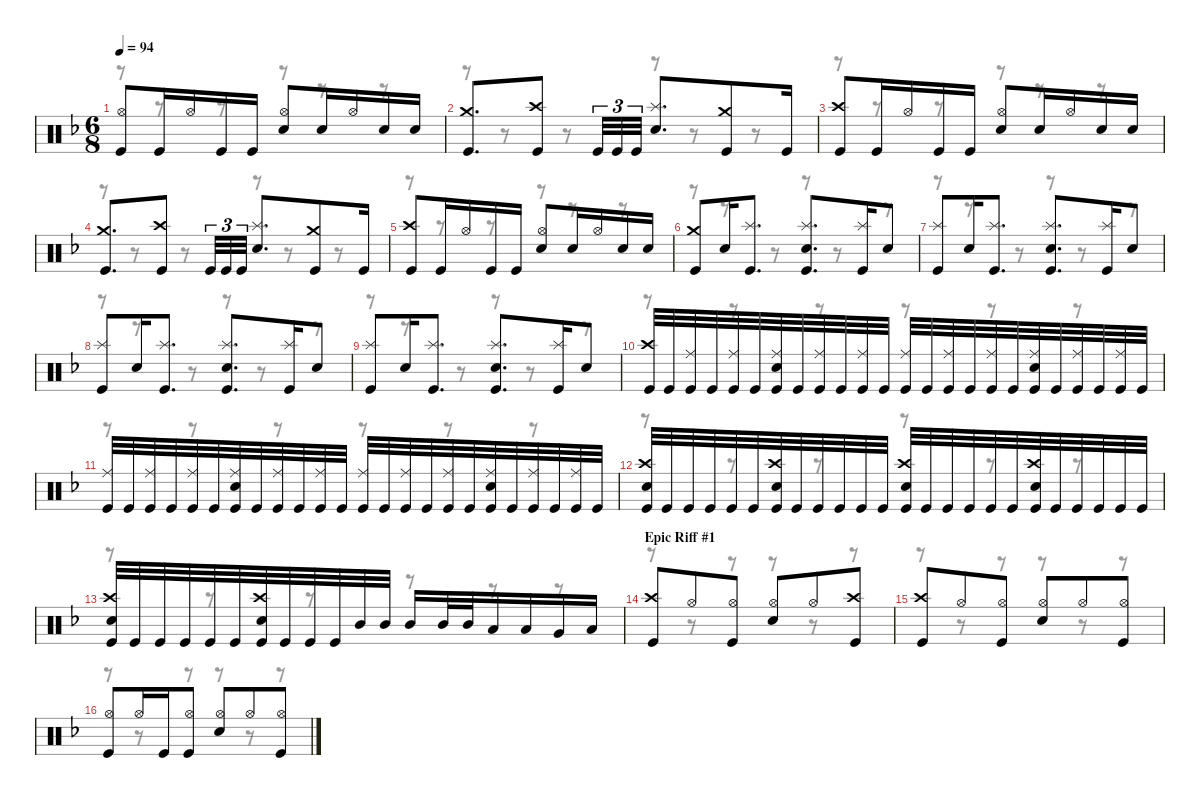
\defaultSystemsLayout 4
\hideDynamics
\bracketExtendMode nobrackets
\singleTrackTrackNamePolicy hidden
\multiTrackTrackNamePolicy hidden
\otherSystemsTrackNameOrientation horizontal
\track ("M. Lopez" "drm.") {instrument percussion}
\staff {score}
\articulation defaults
\voice
\ts (6 8)
\tempo 94
\clef neutral
\ks dminor
("Hi-Hat (open)"{acc forcenatural} "Kick (hit)"{acc forcenatural}).8{dy f beam Up} "Kick (hit)"{acc forcenatural}.16{beam Up} "Hi-Hat (open)"{acc forcenatural}.16{beam Up} "Kick (hit)"{acc forcenatural}.16{beam Up} "Kick (hit)"{acc forcenatural}.16{beam Up} ("Hi-Hat (open)"{acc forcenatural} "Snare (hit) 2"{acc forcenatural}).8{beam Up} "Snare (hit) 2"{acc forcenatural}.16{beam Up} "Hi-Hat (open)"{acc forcenatural}.16{beam Up} "Snare (hit) 2"{acc forcenatural}.16{beam Up} "Snare (hit) 2"{acc forcenatural}.16{beam Up} |
("Crash medium (hit)"{acc forcenatural} "Kick (hit)"{acc forcenatural}).8{d beam Up} ("Crash high (hit)"{acc forcenatural} "Kick (hit)"{acc forcenatural}).8{beam Up} "Kick (hit)"{acc forcenatural}.32{tu (3 2) beam Up} "Kick (hit)"{acc forcenatural}.32{tu (3 2) beam Up} "Kick (hit)"{acc forcenatural}.32{tu (3 2) beam Up} ("Splash (hit)"{acc forcenatural} "Snare (hit) 2"{acc forcenatural}).8{d beam Up} ("Crash medium (hit)"{acc forcenatural} "Kick (hit)"{acc forcenatural}).8{beam Up} "Kick (hit)"{acc forcenatural}.16{beam Up} |
("Crash high (hit)"{acc forcenatural} "Kick (hit)"{acc forcenatural}).8{beam Up} "Kick (hit)"{acc forcenatural}.16{beam Up} "Hi-Hat (open)"{acc forcenatural}.16{beam Up} "Kick (hit)"{acc forcenatural}.16{beam Up} "Kick (hit)"{acc forcenatural}.16{beam Up} ("Hi-Hat (open)"{acc forcenatural} "Snare (hit) 2"{acc forcenatural}).8{beam Up} "Snare (hit) 2"{acc forcenatural}.16{beam Up} "Hi-Hat (open)"{acc forcenatural}.16{beam Up} "Snare (hit) 2"{acc forcenatural}.16{beam Up} "Snare (hit) 2"{acc forcenatural}.16{beam Up} |
("Crash medium (hit)"{acc forcenatural} "Kick (hit)"{acc forcenatural}).8{d beam Up} ("Crash high (hit)"{acc forcenatural} "Kick (hit)"{acc forcenatural}).8{beam Up} "Kick (hit)"{acc forcenatural}.32{tu (3 2) beam Up} "Kick (hit)"{acc forcenatural}.32{tu (3 2) beam Up} "Kick (hit)"{acc forcenatural}.32{tu (3 2) beam Up} ("Splash (hit)"{acc forcenatural} "Snare (hit) 2"{acc forcenatural}).8{d beam Up} ("Crash medium (hit)"{acc forcenatural} "Kick (hit)"{acc forcenatural}).8{beam Up} "Kick (hit)"{acc forcenatural}.16{beam Up} |
("Crash high (hit)"{acc forcenatural} "Kick (hit)"{acc forcenatural}).8{beam Up} "Kick (hit)"{acc forcenatural}.16{beam Up} "Hi-Hat (open)"{acc forcenatural}.16{beam Up} "Kick (hit)"{acc forcenatural}.16{beam Up} "Kick (hit)"{acc forcenatural}.16{beam Up} ("Hi-Hat (open)"{acc forcenatural} "Snare (hit) 2"{acc forcenatural}).8{beam Up} "Snare (hit) 2"{acc forcenatural}.16{beam Up} "Hi-Hat (open)"{acc forcenatural}.16{beam Up} "Snare (hit) 2"{acc forcenatural}.16{beam Up} "Snare (hit) 2"{acc forcenatural}.16{beam Up} |
("Crash medium (hit)"{acc forcenatural} "Kick (hit)"{acc forcenatural}).8{beam Up} "Snare (hit) 2"{acc forcenatural}.16{beam Up} ("Splash (hit)"{acc forcenatural} "Kick (hit)"{acc forcenatural}).8{d beam Up} ("Splash (hit)"{acc forcenatural} "Snare (hit) 2"{acc forcenatural} "Kick (hit)"{acc forcenatural}).8{d beam Up} ("Splash (hit)"{acc forcenatural} "Kick (hit)"{acc forcenatural}).16{beam Up} "Snare (hit) 2"{acc forcenatural}.8{beam Up} |
("Splash (hit)"{acc forcenatural} "Kick (hit)"{acc forcenatural}).8{beam Up} "Snare (hit) 2"{acc forcenatural}.16{beam Up} ("Splash (hit)"{acc forcenatural} "Kick (hit)"{acc forcenatural}).8{d beam Up} ("Splash (hit)"{acc forcenatural} "Snare (hit) 2"{acc forcenatural} "Kick (hit)"{acc forcenatural}).8{d beam Up} ("Splash (hit)"{acc forcenatural} "Kick (hit)"{acc forcenatural}).16{beam Up} "Snare (hit) 2"{acc forcenatural}.8{beam Up} |
("Splash (hit)"{acc forcenatural} "Kick (hit)"{acc forcenatural}).8{beam Up} "Snare (hit) 2"{acc forcenatural}.16{beam Up} ("Splash (hit)"{acc forcenatural} "Kick (hit)"{acc forcenatural}).8{d beam Up} ("Splash (hit)"{acc forcenatural} "Snare (hit) 2"{acc forcenatural} "Kick (hit)"{acc forcenatural}).8{d beam Up} ("Splash (hit)"{acc forcenatural} "Kick (hit)"{acc forcenatural}).16{beam Up} "Snare (hit) 2"{acc forcenatural}.8{beam Up} |
("Splash (hit)"{acc forcenatural} "Kick (hit)"{acc forcenatural}).8{beam Up} "Snare (hit) 2"{acc forcenatural}.16{beam Up} ("Splash (hit)"{acc forcenatural} "Kick (hit)"{acc forcenatural}).8{d beam Up} ("Splash (hit)"{acc forcenatural} "Snare (hit) 2"{acc forcenatural} "Kick (hit)"{acc forcenatural}).8{d beam Up} ("Splash (hit)"{acc forcenatural} "Kick (hit)"{acc forcenatural}).16{beam Up} "Snare (hit) 2"{acc forcenatural}.8{beam Up} |
("Crash high (hit)"{acc forcenatural} "Kick (hit)"{acc forcenatural}).32{beam Up} "Kick (hit)"{acc forcenatural}.32{beam Up} ("Ride (middle)"{acc forcenatural} "Kick (hit)"{acc forcenatural}).32{beam Up} "Kick (hit)"{acc forcenatural}.32{beam Up} ("Ride (middle)"{acc forcenatural} "Kick (hit)"{acc forcenatural}).32{beam Up} "Kick (hit)"{acc forcenatural}.32{beam Up} ("Ride (middle)"{acc forcenatural} "Snare (hit) 2"{acc forcenatural} "Kick (hit)"{acc forcenatural}).32{beam Up} "Kick (hit)"{acc forcenatural}.32{beam Up} ("Ride (middle)"{acc forcenatural} "Kick (hit)"{acc forcenatural}).32{beam Up} "Kick (hit)"{acc forcenatural}.32{beam Up} ("Ride (middle)"{acc forcenatural} "Kick (hit)"{acc forcenatural}).32{beam Up} "Kick (hit)"{acc forcenatural}.32{beam Up} ("Ride (middle)"{acc forcenatural} "Kick (hit)"{acc forcenatural}).32{beam Up} "Kick (hit)"{acc forcenatural}.32{beam Up} ("Ride (middle)"{acc forcenatural} "Kick (hit)"{acc forcenatural}).32{beam Up} "Kick (hit)"{acc forcenatural}.32{beam Up} ("Ride (middle)"{acc forcenatural} "Kick (hit)"{acc forcenatural}).32{beam Up} "Kick (hit)"{acc forcenatural}.32{beam Up} ("Ride (middle)"{acc forcenatural} "Snare (hit) 2"{acc forcenatural} "Kick (hit)"{acc forcenatural}).32{beam Up} "Kick (hit)"{acc forcenatural}.32{beam Up} ("Ride (middle)"{acc forcenatural} "Kick (hit)"{acc forcenatural}).32{beam Up} "Kick (hit)"{acc forcenatural}.32{beam Up} ("Ride (middle)"{acc forcenatural} "Kick (hit)"{acc forcenatural}).32{beam Up} "Kick (hit)"{acc forcenatural}.32{beam Up} |
("Ride (middle)"{acc forcenatural} "Kick (hit)"{acc forcenatural}).32{beam Up} "Kick (hit)"{acc forcenatural}.32{beam Up} ("Ride (middle)"{acc forcenatural} "Kick (hit)"{acc forcenatural}).32{beam Up} "Kick (hit)"{acc forcenatural}.32{beam Up} ("Ride (middle)"{acc forcenatural} "Kick (hit)"{acc forcenatural}).32{beam Up} "Kick (hit)"{acc forcenatural}.32{beam Up} ("Ride (middle)"{acc forcenatural} "Snare (hit) 2"{acc forcenatural} "Kick (hit)"{acc forcenatural}).32{beam Up} "Kick (hit)"{acc forcenatural}.32{beam Up} ("Ride (middle)"{acc forcenatural} "Kick (hit)"{acc forcenatural}).32{beam Up} "Kick (hit)"{acc forcenatural}.32{beam Up} ("Ride (middle)"{acc forcenatural} "Kick (hit)"{acc forcenatural}).32{beam Up} "Kick (hit)"{acc forcenatural}.32{beam Up} ("Ride (middle)"{acc forcenatural} "Kick (hit)"{acc forcenatural}).32{beam Up} "Kick (hit)"{acc forcenatural}.32{beam Up} ("Ride (middle)"{acc forcenatural} "Kick (hit)"{acc forcenatural}).32{beam Up} "Kick (hit)"{acc forcenatural}.32{beam Up} ("Ride (middle)"{acc forcenatural} "Kick (hit)"{acc forcenatural}).32{beam Up} "Kick (hit)"{acc forcenatural}.32{beam Up} ("Ride (middle)"{acc forcenatural} "Snare (hit) 2"{acc forcenatural} "Kick (hit)"{acc forcenatural}).32{beam Up} "Kick (hit)"{acc forcenatural}.32{beam Up} ("Ride (middle)"{acc forcenatural} "Kick (hit)"{acc forcenatural}).32{beam Up} "Kick (hit)"{acc forcenatural}.32{beam Up} ("Ride (middle)"{acc forcenatural} "Kick (hit)"{acc forcenatural}).32{beam Up} "Kick (hit)"{acc forcenatural}.32{beam Up} |
("Crash high (hit)"{acc forcenatural} "Snare (hit) 2"{acc forcenatural} "Kick (hit)"{acc forcenatural}).32{beam Up} "Kick (hit)"{acc forcenatural}.32{beam Up} "Kick (hit)"{acc forcenatural}.32{beam Up} "Kick (hit)"{acc forcenatural}.32{beam Up} "Kick (hit)"{acc forcenatural}.32{beam Up} "Kick (hit)"{acc forcenatural}.32{beam Up} ("Crash high (hit)"{acc forcenatural} "Snare (hit) 2"{acc forcenatural} "Kick (hit)"{acc forcenatural}).32{beam Up} "Kick (hit)"{acc forcenatural}.32{beam Up} "Kick (hit)"{acc forcenatural}.32{beam Up} "Kick (hit)"{acc forcenatural}.32{beam Up} "Kick (hit)"{acc forcenatural}.32{beam Up} "Kick (hit)"{acc forcenatural}.32{beam Up} ("Crash high (hit)"{acc forcenatural} "Snare (hit) 2"{acc forcenatural} "Kick (hit)"{acc forcenatural}).32{beam Up} "Kick (hit)"{acc forcenatural}.32{beam Up} "Kick (hit)"{acc forcenatural}.32{beam Up} "Kick (hit)"{acc forcenatural}.32{beam Up} "Kick (hit)"{acc forcenatural}.32{beam Up} "Kick (hit)"{acc forcenatural}.32{beam Up} ("Crash high (hit)"{acc forcenatural} "Snare (hit) 2"{acc forcenatural} "Kick (hit)"{acc forcenatural}).32{beam Up} "Kick (hit)"{acc forcenatural}.32{beam Up} "Kick (hit)"{acc forcenatural}.32{beam Up} "Kick (hit)"{acc forcenatural}.32{beam Up} "Kick (hit)"{acc forcenatural}.32{beam Up} "Kick (hit)"{acc forcenatural}.32{beam Up} |
("Crash high (hit)"{acc forcenatural} "Snare (hit) 2"{acc forcenatural} "Kick (hit)"{acc forcenatural}).32{beam Up} "Kick (hit)"{acc forcenatural}.32{beam Up} "Kick (hit)"{acc forcenatural}.32{beam Up} "Kick (hit)"{acc forcenatural}.32{beam Up} "Kick (hit)"{acc forcenatural}.32{beam Up} "Kick (hit)"{acc forcenatural}.32{beam Up} ("Crash high (hit)"{acc forcenatural} "Snare (hit) 2"{acc forcenatural} "Kick (hit)"{acc forcenatural}).32{beam Up} "Kick (hit)"{acc forcenatural}.32{beam Up} "Kick (hit)"{acc forcenatural}.32{beam Up} "Kick (hit)"{acc forcenatural}.32{beam Up} "Mid Tom (hit)"{acc forcenatural}.32{beam Up} "Mid Tom (hit)"{acc forcenatural}.32{beam Up} "Mid Tom (hit)"{acc forcenatural}.16{beam Up} "Mid Tom (hit)"{acc forcenatural}.32{beam Up} "Mid Tom (hit)"{acc forcenatural}.32{beam Up} "Low Tom (hit)"{acc forcenatural}.16{beam Up} "Low Tom (hit)"{acc forcenatural}.16{beam Up} "Very Low Tom (hit)"{acc forcenatural}.16{beam Up} "Low Floor Tom (hit)"{acc forcenatural}.16{beam Up} |
\section ("" "Epic Riff #1")
("Crash high (hit)"{acc forcenatural} "Kick (hit)"{acc forcenatural}).8{beam Up} "Hi-Hat (open)"{acc forcenatural}.8{beam Up} ("Hi-Hat (open)"{acc forcenatural} "Kick (hit)"{acc forcenatural}).8{beam Up} ("Hi-Hat (open)"{acc forcenatural} "Snare (hit) 2"{acc forcenatural}).8{beam Up} "Hi-Hat (open)"{acc forcenatural}.8{beam Up} ("Crash high (hit)"{acc forcenatural} "Kick (hit)"{acc forcenatural}).8{beam Up} |
("Crash high (hit)"{acc forcenatural} "Kick (hit)"{acc forcenatural}).8{beam Up} "Hi-Hat (open)"{acc forcenatural}.8{beam Up} ("Hi-Hat (open)"{acc forcenatural} "Kick (hit)"{acc forcenatural}).8{beam Up} ("Hi-Hat (open)"{acc forcenatural} "Snare (hit) 2"{acc forcenatural}).8{beam Up} "Hi-Hat (open)"{acc forcenatural}.8{beam Up} ("Hi-Hat (open)"{acc forcenatural} "Kick (hit)"{acc forcenatural}).8{beam Up} |
("Hi-Hat (open)"{acc forcenatural} "Kick (hit)"{acc forcenatural}).8{beam Up} "Hi-Hat (open)"{acc forcenatural}.16{beam Up} "Kick (hit)"{acc forcenatural}.16{beam Up} ("Hi-Hat (open)"{acc forcenatural} "Kick (hit)"{acc forcenatural}).8{beam Up} ("Hi-Hat (open)"{acc forcenatural} "Snare (hit) 2"{acc forcenatural}).8{beam Up} "Hi-Hat (open)"{acc forcenatural}.8{beam Up} ("Hi-Hat (open)"{acc forcenatural} "Kick (hit)"{acc forcenatural}).8{beam Up}
\voice
\clef neutral
\ottava regular
\simile none
\ks dminor
r.8{dy mf beam Down} r.8{beam Down} r.8{beam Down} r.8{beam Down} r.8{beam Down} r.8{beam Down} |
r.8{beam Down} r.8{beam Down} r.8{beam Down} r.8{beam Down} r.8{beam Down} r.8{beam Down} |
r.8{beam Down} r.8{beam Down} r.8{beam Down} r.8{beam Down} r.8{beam Down} r.8{beam Down} |
r.8{beam Down} r.8{beam Down} r.8{beam Down} r.8{beam Down} r.8{beam Down} r.8{beam Down} |
r.8{beam Down} r.8{beam Down} r.8{beam Down} r.8{beam Down} r.8{beam Down} r.8{beam Down} |
r.8{beam Down} r.8{beam Down} r.8{beam Down} r.8{beam Down} r.8{beam Down} r.8{beam Down} |
r.8{beam Down} r.8{beam Down} r.8{beam Down} r.8{beam Down} r.8{beam Down} r.8{beam Down} |
r.8{beam Down} r.8{beam Down} r.8{beam Down} r.8{beam Down} r.8{beam Down} r.8{beam Down} |
r.8{beam Down} r.8{beam Down} r.8{beam Down} r.8{beam Down} r.8{beam Down} r.8{beam Down} |
r.8{beam Down} r.8{beam Down} r.8{beam Down} r.8{beam Down} r.8{beam Down} r.8{beam Down} |
r.8{beam Down} r.8{beam Down} r.8{beam Down} r.8{beam Down} r.8{beam Down} r.8{beam Down} |
r.8{beam Down} r.8{beam Down} r.8{beam Down} r.8{beam Down} r.8{beam Down} r.8{beam Down} |
r.8{beam Down} r.8{beam Down} r.8{beam Down} r.8{beam Down} r.8{beam Down} r.8{beam Down} |
r.8{beam Down} r.8{beam Down} r.8{beam Down} r.8{beam Down} r.8{beam Down} r.8{beam Down} |
r.8{beam Down} r.8{beam Down} r.8{beam Down} r.8{beam Down} r.8{beam Down} r.8{beam Down} |
r.8{beam Down} r.8{beam Down} r.8{beam Down} r.8{beam Down} r.8{beam Down} r.8{beam Down}
